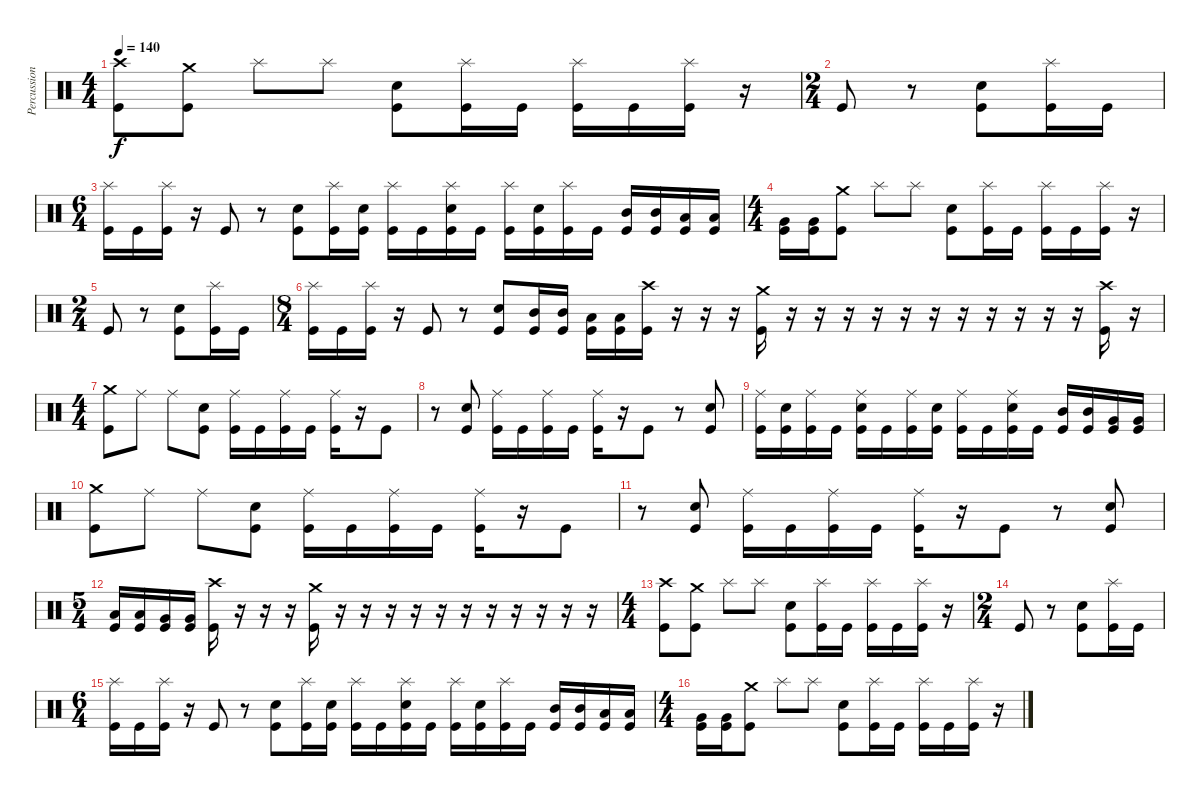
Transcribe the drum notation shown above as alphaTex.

\track ("Percussion" "Percussion") {instrument percussion}
\staff {score}
\articulation defaults
\ts (4 4)
\tempo 140
\clef neutral
\ks c
("Crash high (hit)" "Kick (hit)").8{dy f} ("Crash medium (hit)" "Kick (hit)").8 "Splash (hit)".8 "Splash (hit)".8 ("Electric Snare (hit)" "Kick (hit)").8 ("Splash (hit)" "Kick (hit)").16 "Kick (hit)".16 ("Splash (hit)" "Kick (hit)").16 "Kick (hit)".16 ("Splash (hit)" "Kick (hit)").16 r.16 |
\ts (2 4)
"Kick (hit)".8 r.8 ("Electric Snare (hit)" "Kick (hit)").8 ("Splash (hit)" "Kick (hit)").16 "Kick (hit)".16 |
\ts (6 4)
("Splash (hit)" "Kick (hit)").16 "Kick (hit)".16 ("Splash (hit)" "Kick (hit)").16 r.16 "Kick (hit)".8 r.8 ("Electric Snare (hit)" "Kick (hit)").8 ("Splash (hit)" "Kick (hit)").16 ("Electric Snare (hit)" "Kick (hit)").16 ("Splash (hit)" "Kick (hit)").16 "Kick (hit)".16 ("Splash (hit)" "Electric Snare (hit)" "Kick (hit)").16 "Kick (hit)".16 ("Splash (hit)" "Kick (hit)").16 ("Electric Snare (hit)" "Kick (hit)").16 ("Splash (hit)" "Kick (hit)").16 "Kick (hit)".16 ("Mid Tom (hit)" "Kick (hit)").16 ("Mid Tom (hit)" "Kick (hit)").16 ("Low Tom (hit)" "Kick (hit)").16 ("Low Tom (hit)" "Kick (hit)").16 |
\ts (4 4)
("Very Low Tom (hit)" "Kick (hit)").16 ("Very Low Tom (hit)" "Kick (hit)").16 ("Crash medium (hit)" "Kick (hit)").8 "Splash (hit)".8 "Splash (hit)".8 ("Electric Snare (hit)" "Kick (hit)").8 ("Splash (hit)" "Kick (hit)").16 "Kick (hit)".16 ("Splash (hit)" "Kick (hit)").16 "Kick (hit)".16 ("Splash (hit)" "Kick (hit)").16 r.16 |
\ts (2 4)
"Kick (hit)".8 r.8 ("Electric Snare (hit)" "Kick (hit)").8 ("Splash (hit)" "Kick (hit)").16 "Kick (hit)".16 |
\ts (8 4)
("Splash (hit)" "Kick (hit)").16 "Kick (hit)".16 ("Splash (hit)" "Kick (hit)").16 r.16 "Kick (hit)".8 r.8 ("Electric Snare (hit)" "Kick (hit)").8 ("Mid Tom (hit)" "Kick (hit)").16 ("Mid Tom (hit)" "Kick (hit)").16 ("Low Tom (hit)" "Kick (hit)").16 ("Low Tom (hit)" "Kick (hit)").16 ("Crash high (hit)" "Kick (hit)").16 r.16 r.16 r.16 ("Crash medium (hit)" "Kick (hit)").16 r.16 r.16 r.16 r.16 r.16 r.16 r.16 r.16 r.16 r.16 r.16 ("Crash high (hit)" "Kick (hit)").16 r.16 |
\ts (4 4)
("Crash medium (hit)" "Kick (hit)").8 "Ride (middle)".8 "Ride (middle)".8 ("Electric Snare (hit)" "Kick (hit)").8 ("Ride (middle)" "Kick (hit)").16 "Kick (hit)".16 ("Ride (middle)" "Kick (hit)").16 "Kick (hit)".16 ("Ride (middle)" "Kick (hit)").16 r.16 "Kick (hit)".8 |
r.8 ("Electric Snare (hit)" "Kick (hit)").8 ("Ride (middle)" "Kick (hit)").16 "Kick (hit)".16 ("Ride (middle)" "Kick (hit)").16 "Kick (hit)".16 ("Ride (middle)" "Kick (hit)").16 r.16 "Kick (hit)".8 r.8 ("Electric Snare (hit)" "Kick (hit)").8 |
("Ride (middle)" "Kick (hit)").16 ("Electric Snare (hit)" "Kick (hit)").16 ("Ride (middle)" "Kick (hit)").16 "Kick (hit)".16 ("Ride (middle)" "Electric Snare (hit)" "Kick (hit)").16 "Kick (hit)".16 ("Ride (middle)" "Kick (hit)").16 ("Electric Snare (hit)" "Kick (hit)").16 ("Ride (middle)" "Kick (hit)").16 "Kick (hit)".16 ("Ride (middle)" "Electric Snare (hit)" "Kick (hit)").16 "Kick (hit)".16 ("Mid Tom (hit)" "Kick (hit)").16 ("Mid Tom (hit)" "Kick (hit)").16 ("Very Low Tom (hit)" "Kick (hit)").16 ("Very Low Tom (hit)" "Kick (hit)").16 |
("Crash medium (hit)" "Kick (hit)").8 "Ride (middle)".8 "Ride (middle)".8 ("Electric Snare (hit)" "Kick (hit)").8 ("Ride (middle)" "Kick (hit)").16 "Kick (hit)".16 ("Ride (middle)" "Kick (hit)").16 "Kick (hit)".16 ("Ride (middle)" "Kick (hit)").16 r.16 "Kick (hit)".8 |
r.8 ("Electric Snare (hit)" "Kick (hit)").8 ("Ride (middle)" "Kick (hit)").16 "Kick (hit)".16 ("Ride (middle)" "Kick (hit)").16 "Kick (hit)".16 ("Ride (middle)" "Kick (hit)").16 r.16 "Kick (hit)".8 r.8 ("Electric Snare (hit)" "Kick (hit)").8 |
\ts (5 4)
("Low Tom (hit)" "Kick (hit)").16 ("Low Tom (hit)" "Kick (hit)").16 ("Very Low Tom (hit)" "Kick (hit)").16 ("Very Low Tom (hit)" "Kick (hit)").16 ("Crash high (hit)" "Kick (hit)").16 r.16 r.16 r.16 ("Crash medium (hit)" "Kick (hit)").16 r.16 r.16 r.16 r.16 r.16 r.16 r.16 r.16 r.16 r.16 r.16 |
\ts (4 4)
("Crash high (hit)" "Kick (hit)").8 ("Crash medium (hit)" "Kick (hit)").8 "Splash (hit)".8 "Splash (hit)".8 ("Electric Snare (hit)" "Kick (hit)").8 ("Splash (hit)" "Kick (hit)").16 "Kick (hit)".16 ("Splash (hit)" "Kick (hit)").16 "Kick (hit)".16 ("Splash (hit)" "Kick (hit)").16 r.16 |
\ts (2 4)
"Kick (hit)".8 r.8 ("Electric Snare (hit)" "Kick (hit)").8 ("Splash (hit)" "Kick (hit)").16 "Kick (hit)".16 |
\ts (6 4)
("Splash (hit)" "Kick (hit)").16 "Kick (hit)".16 ("Splash (hit)" "Kick (hit)").16 r.16 "Kick (hit)".8 r.8 ("Electric Snare (hit)" "Kick (hit)").8 ("Splash (hit)" "Kick (hit)").16 ("Electric Snare (hit)" "Kick (hit)").16 ("Splash (hit)" "Kick (hit)").16 "Kick (hit)".16 ("Splash (hit)" "Electric Snare (hit)" "Kick (hit)").16 "Kick (hit)".16 ("Splash (hit)" "Kick (hit)").16 ("Electric Snare (hit)" "Kick (hit)").16 ("Splash (hit)" "Kick (hit)").16 "Kick (hit)".16 ("Mid Tom (hit)" "Kick (hit)").16 ("Mid Tom (hit)" "Kick (hit)").16 ("Low Tom (hit)" "Kick (hit)").16 ("Low Tom (hit)" "Kick (hit)").16 |
\ts (4 4)
("Very Low Tom (hit)" "Kick (hit)").16 ("Very Low Tom (hit)" "Kick (hit)").16 ("Crash medium (hit)" "Kick (hit)").8 "Splash (hit)".8 "Splash (hit)".8 ("Electric Snare (hit)" "Kick (hit)").8 ("Splash (hit)" "Kick (hit)").16 "Kick (hit)".16 ("Splash (hit)" "Kick (hit)").16 "Kick (hit)".16 ("Splash (hit)" "Kick (hit)").16 r.16
